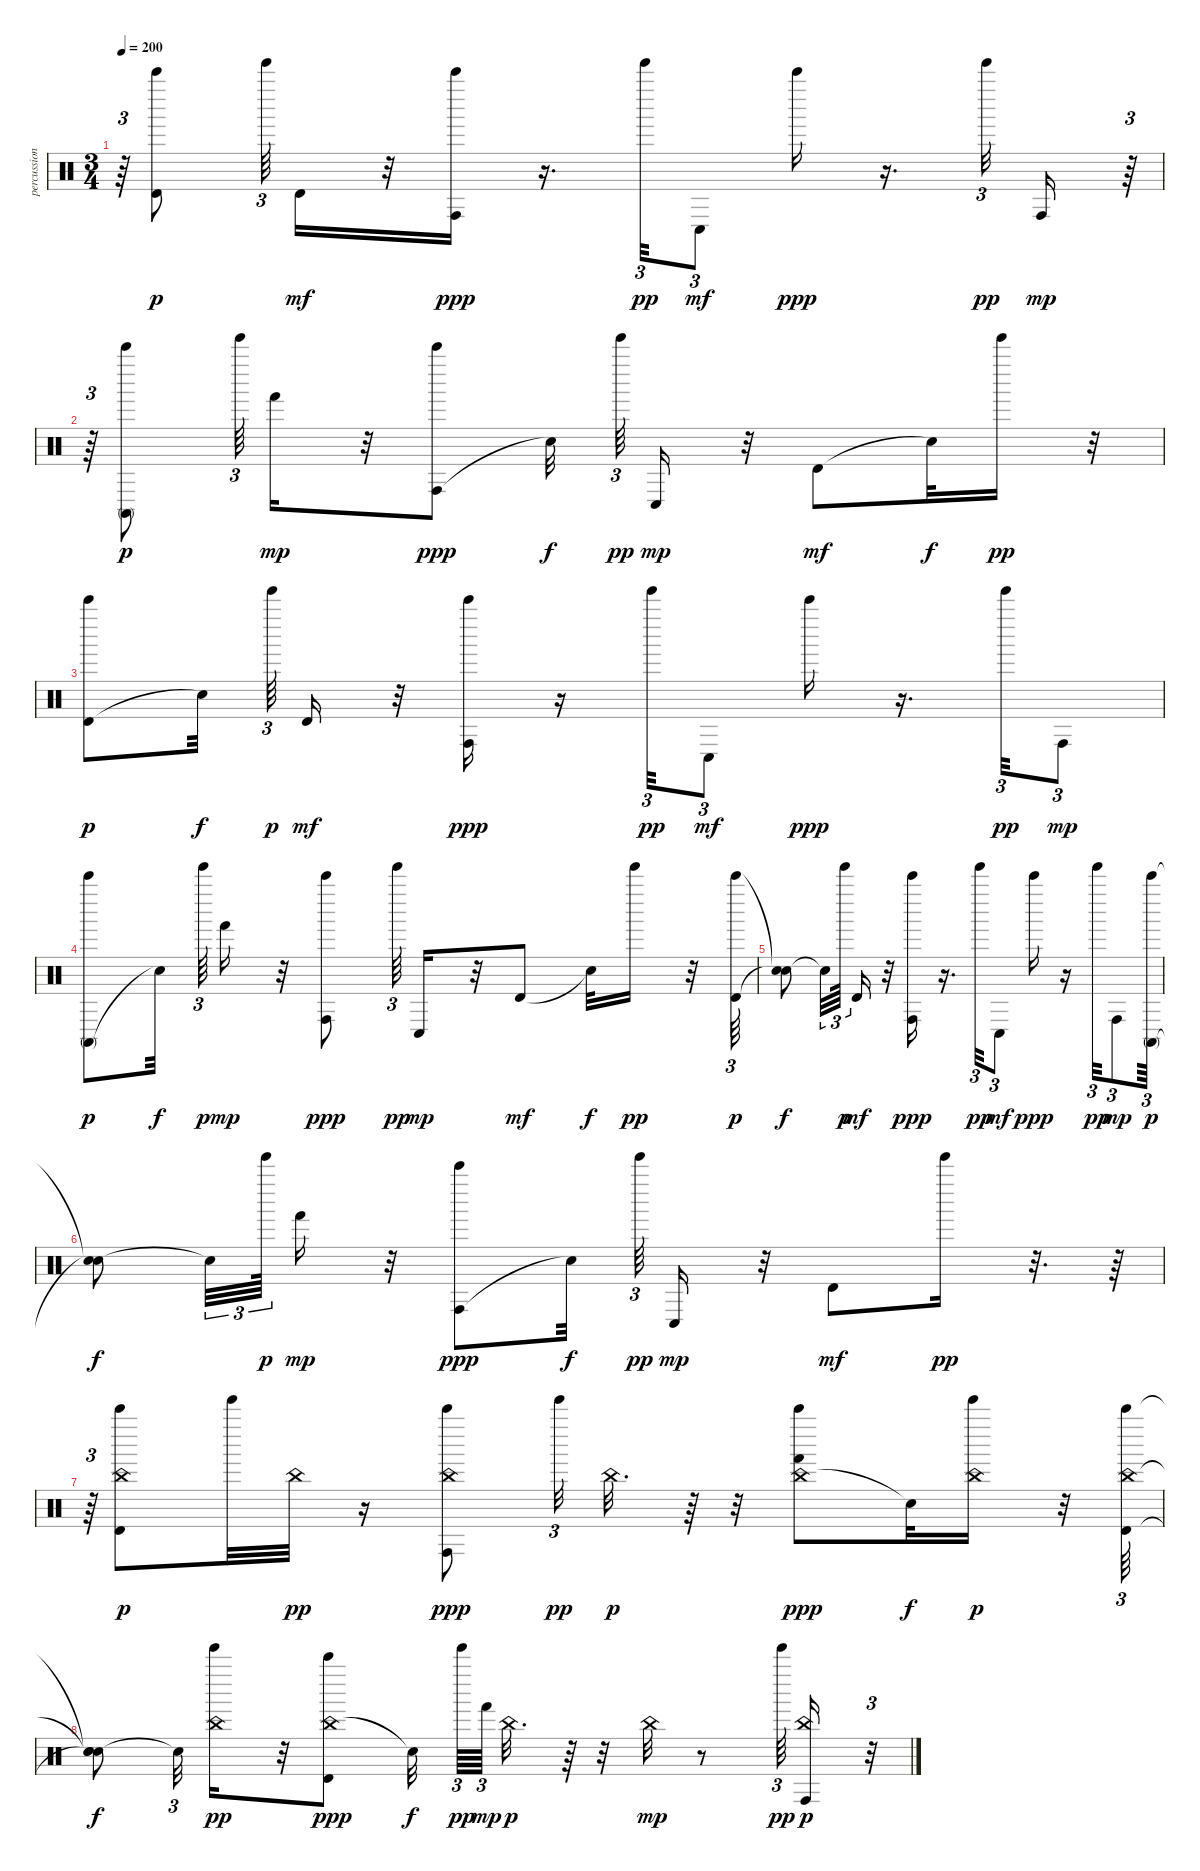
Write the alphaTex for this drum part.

\track ("percussion" "percussion") {instrument percussion}
\staff {score}
\articulation defaults
\ts (3 4)
\tempo 200
\clef neutral
\ks c
r.64{tu (3 2) dy pp} ("Timbale high (hit)" "Bell Tree (hit)").8{dy p} "Tinkle Bell (hit)".64{tu (3 2)} "Timbale high (hit)".16{dy mf} r.32 ("Conga high (hit)" "Bell Tree (hit)").16{dy ppp} r.16{d} "Tinkle Bell (hit)".32{tu (3 2) dy pp} "Conga low (hit)".8{tu (3 2) dy mf} "Bell Tree (hit)".16{dy ppp} r.16{d} "Tinkle Bell (hit)".32{tu (3 2) dy pp} "Conga high (hit)".16{dy mp} r.64{tu (3 2)} |
r.64{tu (3 2)} ("Conga high (mute)" "Bell Tree (hit)").8{dy p} "Tinkle Bell (hit)".64{tu (3 2)} "Hand (hit)".16{dy mp} r.32 ("Conga high (hit)" "Bell Tree (hit)").8{dy ppp} "Snare (hit)"{t}.32{dy f} "Tinkle Bell (hit)".64{tu (3 2) dy pp} "Conga low (hit)".16{dy mp} r.32 "Timbale high (hit)".8{dy mf} "Snare (hit)"{t}.32{dy f} "Tinkle Bell (hit)".16{dy pp} r.32 |
("Timbale high (hit)" "Bell Tree (hit)").8{dy p} "Snare (hit)"{t}.32{dy f} "Tinkle Bell (hit)".64{tu (3 2) dy p} "Timbale high (hit)".16{dy mf} r.32 ("Conga high (hit)" "Bell Tree (hit)").16{dy ppp} r.16 "Tinkle Bell (hit)".32{tu (3 2) dy pp} "Conga low (hit)".8{tu (3 2) dy mf} "Bell Tree (hit)".16{dy ppp} r.16{d} "Tinkle Bell (hit)".32{tu (3 2) dy pp} "Conga high (hit)".8{tu (3 2) dy mp} |
("Conga high (mute)" "Bell Tree (hit)").8{dy p} "Snare (hit)"{t}.32{dy f} "Tinkle Bell (hit)".64{tu (3 2) dy p} "Hand (hit)".16{dy mp} r.32 ("Conga high (hit)" "Bell Tree (hit)").8{dy ppp} "Tinkle Bell (hit)".64{tu (3 2) dy pp} "Conga low (hit)".16{dy mp} r.32 "Timbale high (hit)".8{dy mf} "Snare (hit)"{t}.32{dy f} "Tinkle Bell (hit)".16{dy pp} r.32 ("Timbale high (hit)" "Bell Tree (hit)").64{tu (3 2) dy p} |
("Snare (hit)"{t} "Snare (hit)"{t}).8{dy f} "Snare (hit)"{t}.32{tu (3 2)} "Tinkle Bell (hit)".64{tu (3 2) dy p} "Timbale high (hit)".16{dy mf} r.32 ("Conga high (hit)" "Bell Tree (hit)").16{dy ppp} r.16{d} "Tinkle Bell (hit)".32{tu (3 2) dy pp} "Conga low (hit)".8{tu (3 2) dy mf} "Bell Tree (hit)".16{dy ppp} r.16 "Tinkle Bell (hit)".32{tu (3 2) dy pp} "Conga high (hit)".8{tu (3 2) dy mp} ("Conga high (mute)" "Bell Tree (hit)").64{tu (3 2) dy p} |
("Snare (hit)"{t} "Snare (hit)"{t}).8{dy f} "Snare (hit)"{t}.32{tu (3 2)} "Tinkle Bell (hit)".64{tu (3 2) dy p} "Hand (hit)".16{dy mp} r.32 ("Conga high (hit)" "Bell Tree (hit)").8{dy ppp} "Snare (hit)"{t}.32{dy f} "Tinkle Bell (hit)".64{tu (3 2) dy pp} "Conga low (hit)".16{dy mp} r.32 "Timbale high (hit)".8{dy mf} "Tinkle Bell (hit)".16{dy pp} r.32{d} r.64 |
r.64{tu (3 2)} ("China (hit)" "Timbale high (hit)" "Bell Tree (hit)").8{dy p} "Tinkle Bell (hit)".32 "China (hit)".32{dy pp} r.16 ("China (hit)" "Conga high (hit)" "Bell Tree (hit)").8{dy ppp} "Tinkle Bell (hit)".32{tu (3 2) dy pp} "China (hit)".32{d dy p} r.64 r.32 ("China (hit)" "Hand (hit)" "Bell Tree (hit)").8{dy ppp} "Snare (hit)"{t}.32{dy f} ("Tinkle Bell (hit)" "China (hit)").16{dy p} r.32 ("China (hit)" "Timbale high (hit)" "Bell Tree (hit)").64{tu (3 2)} |
("Snare (hit)"{t} "Snare (hit)"{t} "Snare (hit)"{t}).8{dy f} "Snare (hit)"{t}.32{tu (3 2)} ("Tinkle Bell (hit)" "China (hit)").16{dy pp} r.32 ("China (hit)" "Timbale high (hit)" "Bell Tree (hit)").8{dy ppp} "Snare (hit)"{t}.32{dy f} "Tinkle Bell (hit)".64{tu (3 2) dy pp} "Hand (hit)".64{tu (3 2) dy mp} "China (hit)".32{d dy p} r.64 r.32 "China (hit)".32{dy mp} r.8 "Tinkle Bell (hit)".64{tu (3 2) dy pp} ("Conga high (hit)" "China (hit)").16{dy p} r.32{tu (3 2)}
